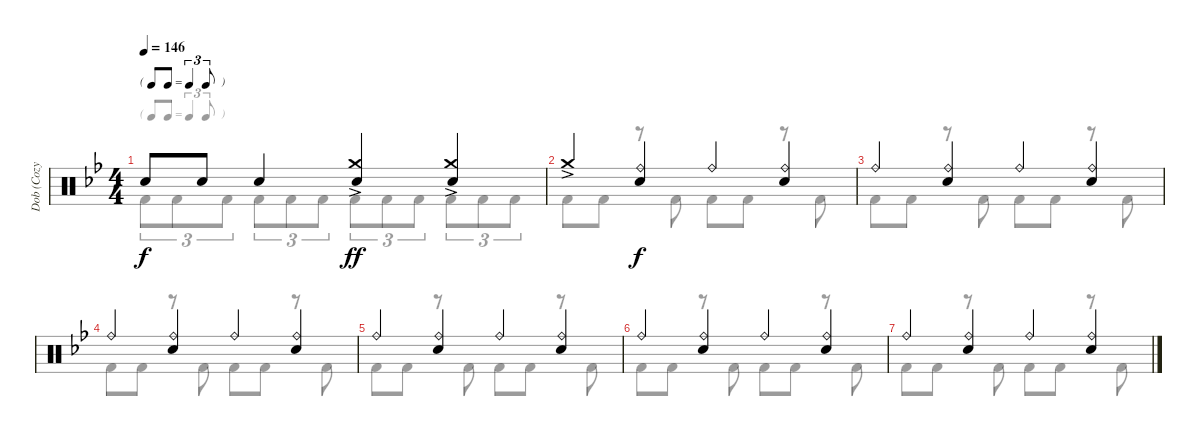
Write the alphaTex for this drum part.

\track ("Dob (Cozy Powell)" "Dob (Cozy ") {instrument percussion}
\staff {score}
\articulation defaults
\voice
\ts (4 4)
\tf triplet8th
\tempo 146
\clef neutral
\ks bb "Electric Snare (hit)".8{dy f} "Electric Snare (hit)".8 "Electric Snare (hit)".4
("Crash medium (hit)"{ac} "Electric Snare (hit)").4{dy ff} ("Crash medium (hit)"{ac} "Electric Snare (hit)").4 |
"Crash medium (hit)"{ac}.4 ("Ride (bell)" "Electric Snare (hit)").4{dy f} "Ride (bell)".4 ("Ride (bell)" "Electric Snare (hit)").4 |
"Ride (bell)".4 ("Ride (bell)" "Electric Snare (hit)").4 "Ride (bell)".4 ("Ride (bell)" "Electric Snare (hit)").4 |
"Ride (bell)".4 ("Ride (bell)" "Electric Snare (hit)").4 "Ride (bell)".4 ("Ride (bell)" "Electric Snare (hit)").4 |
"Ride (bell)".4 ("Ride (bell)" "Electric Snare (hit)").4 "Ride (bell)".4 ("Ride (bell)" "Electric Snare (hit)").4 |
"Ride (bell)".4 ("Ride (bell)" "Electric Snare (hit)").4 "Ride (bell)".4 ("Ride (bell)" "Electric Snare (hit)").4 |
"Ride (bell)".4 ("Ride (bell)" "Electric Snare (hit)").4 "Ride (bell)".4 ("Ride (bell)" "Electric Snare (hit)").4 |
\voice
\clef neutral
\ottava regular
\simile none
\ks bb "Kick (hit) 2".8{tu (3 2) dy f} "Kick (hit) 2".8{tu (3 2)} "Kick (hit) 2".8{tu (3 2)} "Kick (hit) 2".8{tu (3 2)} "Kick (hit) 2".8{tu (3 2)} "Kick (hit) 2".8{tu (3 2)} "Kick (hit) 2".8{tu (3 2)} "Kick (hit) 2".8{tu (3 2)} "Kick (hit) 2".8{tu (3 2)} "Kick (hit) 2".8{tu (3 2)} "Kick (hit) 2".8{tu (3 2)} "Kick (hit) 2".8{tu (3 2)}
|
"Kick (hit) 2".8 "Kick (hit) 2".8 r.8 "Kick (hit) 2".8 "Kick (hit) 2".8 "Kick (hit) 2".8 r.8 "Kick (hit) 2".8 |
"Kick (hit) 2".8 "Kick (hit) 2".8 r.8 "Kick (hit) 2".8 "Kick (hit) 2".8 "Kick (hit) 2".8 r.8 "Kick (hit) 2".8 |
"Kick (hit) 2".8 "Kick (hit) 2".8 r.8 "Kick (hit) 2".8 "Kick (hit) 2".8 "Kick (hit) 2".8 r.8 "Kick (hit) 2".8 |
"Kick (hit) 2".8 "Kick (hit) 2".8 r.8 "Kick (hit) 2".8 "Kick (hit) 2".8 "Kick (hit) 2".8 r.8 "Kick (hit) 2".8 |
"Kick (hit) 2".8 "Kick (hit) 2".8 r.8 "Kick (hit) 2".8 "Kick (hit) 2".8 "Kick (hit) 2".8 r.8 "Kick (hit) 2".8 |
"Kick (hit) 2".8 "Kick (hit) 2".8 r.8 "Kick (hit) 2".8 "Kick (hit) 2".8 "Kick (hit) 2".8 r.8 "Kick (hit) 2".8 |
